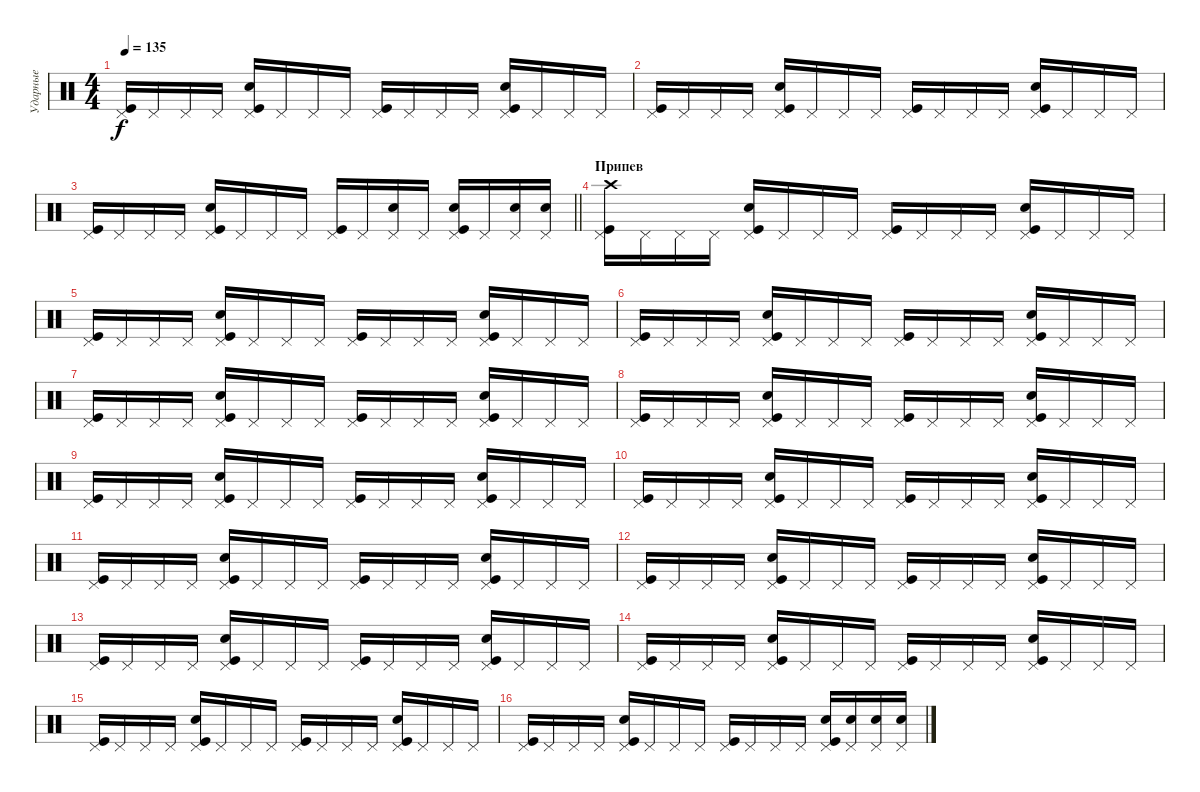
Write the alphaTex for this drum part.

\track ("Ударные" "Ударные") {instrument percussion}
\staff {score}
\articulation defaults
\ts (4 4)
\tempo 135
\clef neutral
\ks c
("Kick (hit)" "Pedal Hi-Hat (hit)").16{dy f} "Pedal Hi-Hat (hit)".16 "Pedal Hi-Hat (hit)".16 "Pedal Hi-Hat (hit)".16 ("Kick (hit)" "Pedal Hi-Hat (hit)" "Snare (hit) 2").16 "Pedal Hi-Hat (hit)".16 "Pedal Hi-Hat (hit)".16 "Pedal Hi-Hat (hit)".16 ("Kick (hit)" "Pedal Hi-Hat (hit)").16 "Pedal Hi-Hat (hit)".16 "Pedal Hi-Hat (hit)".16 "Pedal Hi-Hat (hit)".16 ("Kick (hit)" "Pedal Hi-Hat (hit)" "Snare (hit) 2").16 "Pedal Hi-Hat (hit)".16 "Pedal Hi-Hat (hit)".16 "Pedal Hi-Hat (hit)".16 |
("Kick (hit)" "Pedal Hi-Hat (hit)").16 "Pedal Hi-Hat (hit)".16 "Pedal Hi-Hat (hit)".16 "Pedal Hi-Hat (hit)".16 ("Kick (hit)" "Pedal Hi-Hat (hit)" "Snare (hit) 2").16 "Pedal Hi-Hat (hit)".16 "Pedal Hi-Hat (hit)".16 "Pedal Hi-Hat (hit)".16 ("Kick (hit)" "Pedal Hi-Hat (hit)").16 "Pedal Hi-Hat (hit)".16 "Pedal Hi-Hat (hit)".16 "Pedal Hi-Hat (hit)".16 ("Kick (hit)" "Pedal Hi-Hat (hit)" "Snare (hit) 2").16 "Pedal Hi-Hat (hit)".16 "Pedal Hi-Hat (hit)".16 "Pedal Hi-Hat (hit)".16 |
\barLineRight lightlight
("Kick (hit)" "Pedal Hi-Hat (hit)").16 "Pedal Hi-Hat (hit)".16 "Pedal Hi-Hat (hit)".16 "Pedal Hi-Hat (hit)".16 ("Kick (hit)" "Pedal Hi-Hat (hit)" "Snare (hit) 2").16 "Pedal Hi-Hat (hit)".16 "Pedal Hi-Hat (hit)".16 "Pedal Hi-Hat (hit)".16 ("Kick (hit)" "Pedal Hi-Hat (hit)").16 "Pedal Hi-Hat (hit)".16 ("Pedal Hi-Hat (hit)" "Snare (hit) 2").16 "Pedal Hi-Hat (hit)".16 ("Kick (hit)" "Pedal Hi-Hat (hit)" "Snare (hit) 2").16 "Pedal Hi-Hat (hit)".16 ("Pedal Hi-Hat (hit)" "Snare (hit) 2").16 ("Pedal Hi-Hat (hit)" "Snare (hit) 2").16 |
\section ("" "Припев")
("Kick (hit)" "Pedal Hi-Hat (hit)" "Crash high (hit)").16 "Pedal Hi-Hat (hit)".16 "Pedal Hi-Hat (hit)".16 "Pedal Hi-Hat (hit)".16 ("Kick (hit)" "Pedal Hi-Hat (hit)" "Snare (hit) 2").16 "Pedal Hi-Hat (hit)".16 "Pedal Hi-Hat (hit)".16 "Pedal Hi-Hat (hit)".16 ("Kick (hit)" "Pedal Hi-Hat (hit)").16 "Pedal Hi-Hat (hit)".16 "Pedal Hi-Hat (hit)".16 "Pedal Hi-Hat (hit)".16 ("Kick (hit)" "Pedal Hi-Hat (hit)" "Snare (hit) 2").16 "Pedal Hi-Hat (hit)".16 "Pedal Hi-Hat (hit)".16 "Pedal Hi-Hat (hit)".16 |
("Kick (hit)" "Pedal Hi-Hat (hit)").16 "Pedal Hi-Hat (hit)".16 "Pedal Hi-Hat (hit)".16 "Pedal Hi-Hat (hit)".16 ("Kick (hit)" "Pedal Hi-Hat (hit)" "Snare (hit) 2").16 "Pedal Hi-Hat (hit)".16 "Pedal Hi-Hat (hit)".16 "Pedal Hi-Hat (hit)".16 ("Kick (hit)" "Pedal Hi-Hat (hit)").16 "Pedal Hi-Hat (hit)".16 "Pedal Hi-Hat (hit)".16 "Pedal Hi-Hat (hit)".16 ("Kick (hit)" "Pedal Hi-Hat (hit)" "Snare (hit) 2").16 "Pedal Hi-Hat (hit)".16 "Pedal Hi-Hat (hit)".16 "Pedal Hi-Hat (hit)".16 |
("Kick (hit)" "Pedal Hi-Hat (hit)").16 "Pedal Hi-Hat (hit)".16 "Pedal Hi-Hat (hit)".16 "Pedal Hi-Hat (hit)".16 ("Kick (hit)" "Pedal Hi-Hat (hit)" "Snare (hit) 2").16 "Pedal Hi-Hat (hit)".16 "Pedal Hi-Hat (hit)".16 "Pedal Hi-Hat (hit)".16 ("Kick (hit)" "Pedal Hi-Hat (hit)").16 "Pedal Hi-Hat (hit)".16 "Pedal Hi-Hat (hit)".16 "Pedal Hi-Hat (hit)".16 ("Kick (hit)" "Pedal Hi-Hat (hit)" "Snare (hit) 2").16 "Pedal Hi-Hat (hit)".16 "Pedal Hi-Hat (hit)".16 "Pedal Hi-Hat (hit)".16 |
("Kick (hit)" "Pedal Hi-Hat (hit)").16 "Pedal Hi-Hat (hit)".16 "Pedal Hi-Hat (hit)".16 "Pedal Hi-Hat (hit)".16 ("Kick (hit)" "Pedal Hi-Hat (hit)" "Snare (hit) 2").16 "Pedal Hi-Hat (hit)".16 "Pedal Hi-Hat (hit)".16 "Pedal Hi-Hat (hit)".16 ("Kick (hit)" "Pedal Hi-Hat (hit)").16 "Pedal Hi-Hat (hit)".16 "Pedal Hi-Hat (hit)".16 "Pedal Hi-Hat (hit)".16 ("Kick (hit)" "Pedal Hi-Hat (hit)" "Snare (hit) 2").16 "Pedal Hi-Hat (hit)".16 "Pedal Hi-Hat (hit)".16 "Pedal Hi-Hat (hit)".16 |
("Kick (hit)" "Pedal Hi-Hat (hit)").16 "Pedal Hi-Hat (hit)".16 "Pedal Hi-Hat (hit)".16 "Pedal Hi-Hat (hit)".16 ("Kick (hit)" "Pedal Hi-Hat (hit)" "Snare (hit) 2").16 "Pedal Hi-Hat (hit)".16 "Pedal Hi-Hat (hit)".16 "Pedal Hi-Hat (hit)".16 ("Kick (hit)" "Pedal Hi-Hat (hit)").16 "Pedal Hi-Hat (hit)".16 "Pedal Hi-Hat (hit)".16 "Pedal Hi-Hat (hit)".16 ("Kick (hit)" "Pedal Hi-Hat (hit)" "Snare (hit) 2").16 "Pedal Hi-Hat (hit)".16 "Pedal Hi-Hat (hit)".16 "Pedal Hi-Hat (hit)".16 |
("Kick (hit)" "Pedal Hi-Hat (hit)").16 "Pedal Hi-Hat (hit)".16 "Pedal Hi-Hat (hit)".16 "Pedal Hi-Hat (hit)".16 ("Kick (hit)" "Pedal Hi-Hat (hit)" "Snare (hit) 2").16 "Pedal Hi-Hat (hit)".16 "Pedal Hi-Hat (hit)".16 "Pedal Hi-Hat (hit)".16 ("Kick (hit)" "Pedal Hi-Hat (hit)").16 "Pedal Hi-Hat (hit)".16 "Pedal Hi-Hat (hit)".16 "Pedal Hi-Hat (hit)".16 ("Kick (hit)" "Pedal Hi-Hat (hit)" "Snare (hit) 2").16 "Pedal Hi-Hat (hit)".16 "Pedal Hi-Hat (hit)".16 "Pedal Hi-Hat (hit)".16 |
("Kick (hit)" "Pedal Hi-Hat (hit)").16 "Pedal Hi-Hat (hit)".16 "Pedal Hi-Hat (hit)".16 "Pedal Hi-Hat (hit)".16 ("Kick (hit)" "Pedal Hi-Hat (hit)" "Snare (hit) 2").16 "Pedal Hi-Hat (hit)".16 "Pedal Hi-Hat (hit)".16 "Pedal Hi-Hat (hit)".16 ("Kick (hit)" "Pedal Hi-Hat (hit)").16 "Pedal Hi-Hat (hit)".16 "Pedal Hi-Hat (hit)".16 "Pedal Hi-Hat (hit)".16 ("Kick (hit)" "Pedal Hi-Hat (hit)" "Snare (hit) 2").16 "Pedal Hi-Hat (hit)".16 "Pedal Hi-Hat (hit)".16 "Pedal Hi-Hat (hit)".16 |
("Kick (hit)" "Pedal Hi-Hat (hit)").16 "Pedal Hi-Hat (hit)".16 "Pedal Hi-Hat (hit)".16 "Pedal Hi-Hat (hit)".16 ("Kick (hit)" "Pedal Hi-Hat (hit)" "Snare (hit) 2").16 "Pedal Hi-Hat (hit)".16 "Pedal Hi-Hat (hit)".16 "Pedal Hi-Hat (hit)".16 ("Kick (hit)" "Pedal Hi-Hat (hit)").16 "Pedal Hi-Hat (hit)".16 "Pedal Hi-Hat (hit)".16 "Pedal Hi-Hat (hit)".16 ("Kick (hit)" "Pedal Hi-Hat (hit)" "Snare (hit) 2").16 "Pedal Hi-Hat (hit)".16 "Pedal Hi-Hat (hit)".16 "Pedal Hi-Hat (hit)".16 |
("Kick (hit)" "Pedal Hi-Hat (hit)").16 "Pedal Hi-Hat (hit)".16 "Pedal Hi-Hat (hit)".16 "Pedal Hi-Hat (hit)".16 ("Kick (hit)" "Pedal Hi-Hat (hit)" "Snare (hit) 2").16 "Pedal Hi-Hat (hit)".16 "Pedal Hi-Hat (hit)".16 "Pedal Hi-Hat (hit)".16 ("Kick (hit)" "Pedal Hi-Hat (hit)").16 "Pedal Hi-Hat (hit)".16 "Pedal Hi-Hat (hit)".16 "Pedal Hi-Hat (hit)".16 ("Kick (hit)" "Pedal Hi-Hat (hit)" "Snare (hit) 2").16 "Pedal Hi-Hat (hit)".16 "Pedal Hi-Hat (hit)".16 "Pedal Hi-Hat (hit)".16 |
("Kick (hit)" "Pedal Hi-Hat (hit)").16 "Pedal Hi-Hat (hit)".16 "Pedal Hi-Hat (hit)".16 "Pedal Hi-Hat (hit)".16 ("Kick (hit)" "Pedal Hi-Hat (hit)" "Snare (hit) 2").16 "Pedal Hi-Hat (hit)".16 "Pedal Hi-Hat (hit)".16 "Pedal Hi-Hat (hit)".16 ("Kick (hit)" "Pedal Hi-Hat (hit)").16 "Pedal Hi-Hat (hit)".16 "Pedal Hi-Hat (hit)".16 "Pedal Hi-Hat (hit)".16 ("Kick (hit)" "Pedal Hi-Hat (hit)" "Snare (hit) 2").16 "Pedal Hi-Hat (hit)".16 "Pedal Hi-Hat (hit)".16 "Pedal Hi-Hat (hit)".16 |
("Kick (hit)" "Pedal Hi-Hat (hit)").16 "Pedal Hi-Hat (hit)".16 "Pedal Hi-Hat (hit)".16 "Pedal Hi-Hat (hit)".16 ("Kick (hit)" "Pedal Hi-Hat (hit)" "Snare (hit) 2").16 "Pedal Hi-Hat (hit)".16 "Pedal Hi-Hat (hit)".16 "Pedal Hi-Hat (hit)".16 ("Kick (hit)" "Pedal Hi-Hat (hit)").16 "Pedal Hi-Hat (hit)".16 "Pedal Hi-Hat (hit)".16 "Pedal Hi-Hat (hit)".16 ("Kick (hit)" "Pedal Hi-Hat (hit)" "Snare (hit) 2").16 "Pedal Hi-Hat (hit)".16 "Pedal Hi-Hat (hit)".16 "Pedal Hi-Hat (hit)".16 |
("Kick (hit)" "Pedal Hi-Hat (hit)").16 "Pedal Hi-Hat (hit)".16 "Pedal Hi-Hat (hit)".16 "Pedal Hi-Hat (hit)".16 ("Kick (hit)" "Pedal Hi-Hat (hit)" "Snare (hit) 2").16 "Pedal Hi-Hat (hit)".16 "Pedal Hi-Hat (hit)".16 "Pedal Hi-Hat (hit)".16 ("Kick (hit)" "Pedal Hi-Hat (hit)").16 "Pedal Hi-Hat (hit)".16 "Pedal Hi-Hat (hit)".16 "Pedal Hi-Hat (hit)".16 ("Kick (hit)" "Pedal Hi-Hat (hit)" "Snare (hit) 2").16 "Pedal Hi-Hat (hit)".16 "Pedal Hi-Hat (hit)".16 "Pedal Hi-Hat (hit)".16 |
("Kick (hit)" "Pedal Hi-Hat (hit)").16 "Pedal Hi-Hat (hit)".16 "Pedal Hi-Hat (hit)".16 "Pedal Hi-Hat (hit)".16 ("Kick (hit)" "Pedal Hi-Hat (hit)" "Snare (hit) 2").16 "Pedal Hi-Hat (hit)".16 "Pedal Hi-Hat (hit)".16 "Pedal Hi-Hat (hit)".16 ("Kick (hit)" "Pedal Hi-Hat (hit)").16 "Pedal Hi-Hat (hit)".16 "Pedal Hi-Hat (hit)".16 "Pedal Hi-Hat (hit)".16 ("Kick (hit)" "Pedal Hi-Hat (hit)" "Snare (hit) 2").16 ("Pedal Hi-Hat (hit)" "Snare (hit) 2").16 ("Pedal Hi-Hat (hit)" "Snare (hit) 2").16 ("Pedal Hi-Hat (hit)" "Snare (hit) 2").16
